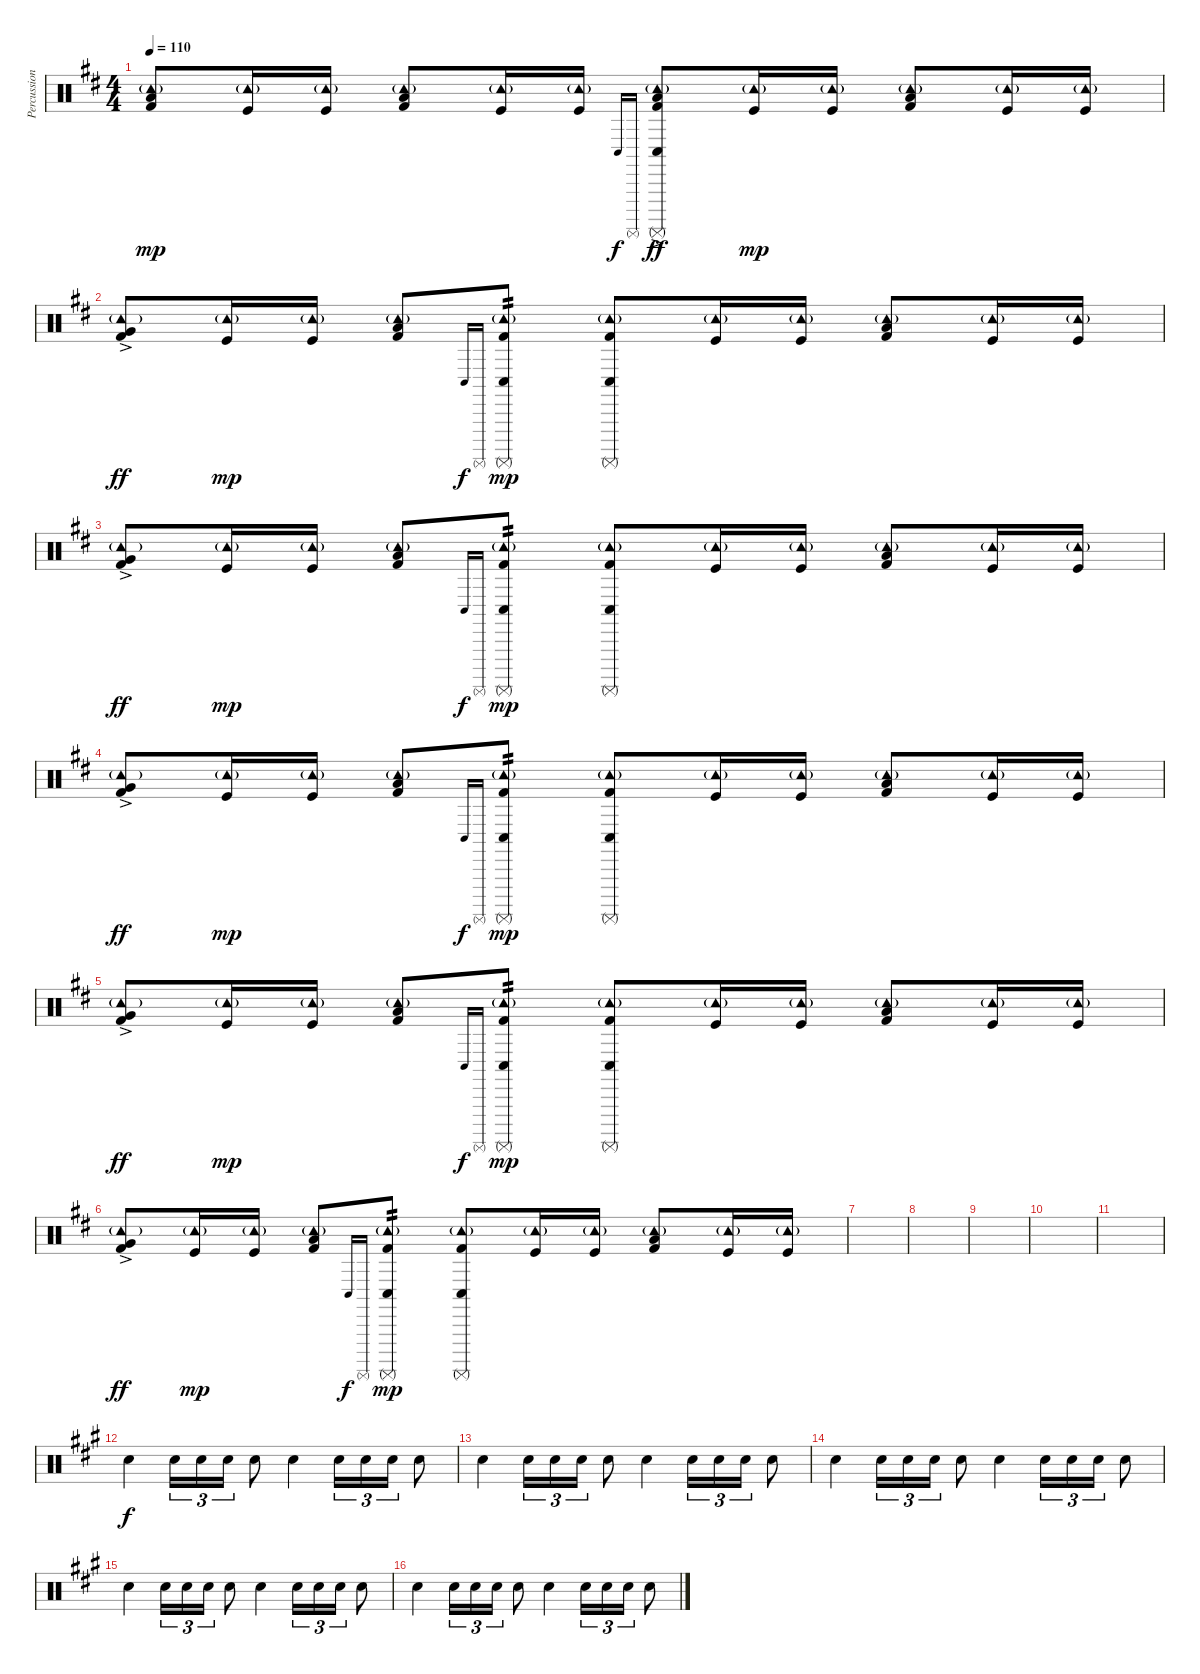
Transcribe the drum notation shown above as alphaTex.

\track ("Percussion" "Percussion") {instrument percussion}
\staff {score}
\articulation defaults
\ts (4 4)
\tempo 110
\clef neutral
\ks d
("Tambourine (hit)"{g} "Low Floor Tom (hit)" "Kick (hit) 2").8{dy mp} ("Tambourine (hit)"{g} "Kick (hit)").16 ("Tambourine (hit)"{g} "Kick (hit)").16 ("Tambourine (hit)"{g} "Low Tom (hit)" "Kick (hit) 2").8 ("Tambourine (hit)"{g} "Kick (hit)").16 ("Tambourine (hit)"{g} "Kick (hit)").16 "Conga low (hit)".16{gr onbeat dy f} "Surdo (mute)".16{gr onbeat} ("Tambourine (hit)"{g} "Conga low (hit)"{ac} "Surdo (mute)"{ac} "Low Floor Tom (hit)"{ac} "Kick (hit) 2").8{dy ff} ("Tambourine (hit)"{g} "Kick (hit)").16{dy mp} ("Tambourine (hit)"{g} "Kick (hit)").16 ("Tambourine (hit)"{g} "Low Floor Tom (hit)" "Kick (hit) 2").8 ("Tambourine (hit)"{g} "Kick (hit)").16 ("Tambourine (hit)"{g} "Kick (hit)").16 |
("Tambourine (hit)"{g} "Very Low Tom (hit)"{ac} "Kick (hit) 2").8{dy ff} ("Tambourine (hit)"{g} "Kick (hit)").16{dy mp} ("Tambourine (hit)"{g} "Kick (hit)").16 ("Tambourine (hit)"{g} "Low Floor Tom (hit)" "Kick (hit) 2").8 "Conga low (hit)".16{gr onbeat dy f} "Surdo (mute)".16{gr onbeat} ("Tambourine (hit)"{g} "Conga low (hit)" "Surdo (mute)" "Kick (hit) 2").8{tp 2 dy mp} ("Tambourine (hit)"{g} "Conga low (hit)" "Surdo (mute)" "Kick (hit) 2").8 ("Tambourine (hit)"{g} "Kick (hit)").16 ("Tambourine (hit)"{g} "Kick (hit)").16 ("Tambourine (hit)"{g} "Low Floor Tom (hit)" "Kick (hit) 2").8 ("Tambourine (hit)"{g} "Kick (hit)").16 ("Tambourine (hit)"{g} "Kick (hit)").16 |
("Tambourine (hit)"{g} "Very Low Tom (hit)"{ac} "Kick (hit) 2").8{dy ff} ("Tambourine (hit)"{g} "Kick (hit)").16{dy mp} ("Tambourine (hit)"{g} "Kick (hit)").16 ("Tambourine (hit)"{g} "Low Floor Tom (hit)" "Kick (hit) 2").8 "Conga low (hit)".16{gr onbeat dy f} "Surdo (mute)".16{gr onbeat} ("Tambourine (hit)"{g} "Conga low (hit)" "Surdo (mute)" "Kick (hit) 2").8{tp 2 dy mp} ("Tambourine (hit)"{g} "Conga low (hit)" "Surdo (mute)" "Kick (hit) 2").8 ("Tambourine (hit)"{g} "Kick (hit)").16 ("Tambourine (hit)"{g} "Kick (hit)").16 ("Tambourine (hit)"{g} "Low Floor Tom (hit)" "Kick (hit) 2").8 ("Tambourine (hit)"{g} "Kick (hit)").16 ("Tambourine (hit)"{g} "Kick (hit)").16 |
("Tambourine (hit)"{g} "Very Low Tom (hit)"{ac} "Kick (hit) 2").8{dy ff} ("Tambourine (hit)"{g} "Kick (hit)").16{dy mp} ("Tambourine (hit)"{g} "Kick (hit)").16 ("Tambourine (hit)"{g} "Low Floor Tom (hit)" "Kick (hit) 2").8 "Conga low (hit)".16{gr onbeat dy f} "Surdo (mute)".16{gr onbeat} ("Tambourine (hit)"{g} "Conga low (hit)" "Surdo (mute)" "Kick (hit) 2").8{tp 2 dy mp} ("Tambourine (hit)"{g} "Conga low (hit)" "Surdo (mute)" "Kick (hit) 2").8 ("Tambourine (hit)"{g} "Kick (hit)").16 ("Tambourine (hit)"{g} "Kick (hit)").16 ("Tambourine (hit)"{g} "Low Floor Tom (hit)" "Kick (hit) 2").8 ("Tambourine (hit)"{g} "Kick (hit)").16 ("Tambourine (hit)"{g} "Kick (hit)").16 |
("Tambourine (hit)"{g} "Very Low Tom (hit)"{ac} "Kick (hit) 2").8{dy ff} ("Tambourine (hit)"{g} "Kick (hit)").16{dy mp} ("Tambourine (hit)"{g} "Kick (hit)").16 ("Tambourine (hit)"{g} "Low Floor Tom (hit)" "Kick (hit) 2").8 "Conga low (hit)".16{gr onbeat dy f} "Surdo (mute)".16{gr onbeat} ("Tambourine (hit)"{g} "Conga low (hit)" "Surdo (mute)" "Kick (hit) 2").8{tp 2 dy mp} ("Tambourine (hit)"{g} "Conga low (hit)" "Surdo (mute)" "Kick (hit) 2").8 ("Tambourine (hit)"{g} "Kick (hit)").16 ("Tambourine (hit)"{g} "Kick (hit)").16 ("Tambourine (hit)"{g} "Low Floor Tom (hit)" "Kick (hit) 2").8 ("Tambourine (hit)"{g} "Kick (hit)").16 ("Tambourine (hit)"{g} "Kick (hit)").16 |
("Tambourine (hit)"{g} "Very Low Tom (hit)"{ac} "Kick (hit) 2").8{dy ff} ("Tambourine (hit)"{g} "Kick (hit)").16{dy mp} ("Tambourine (hit)"{g} "Kick (hit)").16 ("Tambourine (hit)"{g} "Low Floor Tom (hit)" "Kick (hit) 2").8 "Conga low (hit)".16{gr onbeat dy f} "Surdo (mute)".16{gr onbeat} ("Tambourine (hit)"{g} "Conga low (hit)" "Surdo (mute)" "Kick (hit) 2").8{tp 2 dy mp} ("Tambourine (hit)"{g} "Conga low (hit)" "Surdo (mute)" "Kick (hit) 2").8 ("Tambourine (hit)"{g} "Kick (hit)").16 ("Tambourine (hit)"{g} "Kick (hit)").16 ("Tambourine (hit)"{g} "Low Floor Tom (hit)" "Kick (hit) 2").8 ("Tambourine (hit)"{g} "Kick (hit)").16 ("Tambourine (hit)"{g} "Kick (hit)").16 |
|
|
|
|
|
\ks f#minor "Snare (hit) 2".4{dy f} "Snare (hit) 2".16{tu (3 2)} "Snare (hit) 2".16{tu (3 2)} "Snare (hit) 2".16{tu (3 2)} "Snare (hit) 2".8 "Snare (hit) 2".4 "Snare (hit) 2".16{tu (3 2)} "Snare (hit) 2".16{tu (3 2)} "Snare (hit) 2".16{tu (3 2)} "Snare (hit) 2".8
|
"Snare (hit) 2".4 "Snare (hit) 2".16{tu (3 2)} "Snare (hit) 2".16{tu (3 2)} "Snare (hit) 2".16{tu (3 2)} "Snare (hit) 2".8 "Snare (hit) 2".4 "Snare (hit) 2".16{tu (3 2)} "Snare (hit) 2".16{tu (3 2)} "Snare (hit) 2".16{tu (3 2)} "Snare (hit) 2".8 |
"Snare (hit) 2".4 "Snare (hit) 2".16{tu (3 2)} "Snare (hit) 2".16{tu (3 2)} "Snare (hit) 2".16{tu (3 2)} "Snare (hit) 2".8 "Snare (hit) 2".4 "Snare (hit) 2".16{tu (3 2)} "Snare (hit) 2".16{tu (3 2)} "Snare (hit) 2".16{tu (3 2)} "Snare (hit) 2".8 |
"Snare (hit) 2".4 "Snare (hit) 2".16{tu (3 2)} "Snare (hit) 2".16{tu (3 2)} "Snare (hit) 2".16{tu (3 2)} "Snare (hit) 2".8 "Snare (hit) 2".4 "Snare (hit) 2".16{tu (3 2)} "Snare (hit) 2".16{tu (3 2)} "Snare (hit) 2".16{tu (3 2)} "Snare (hit) 2".8 |
"Snare (hit) 2".4 "Snare (hit) 2".16{tu (3 2)} "Snare (hit) 2".16{tu (3 2)} "Snare (hit) 2".16{tu (3 2)} "Snare (hit) 2".8 "Snare (hit) 2".4 "Snare (hit) 2".16{tu (3 2)} "Snare (hit) 2".16{tu (3 2)} "Snare (hit) 2".16{tu (3 2)} "Snare (hit) 2".8
